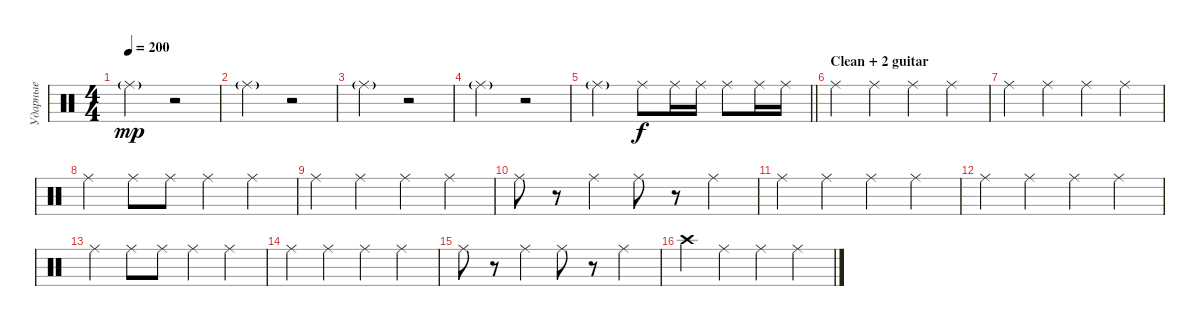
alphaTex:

\track ("Ударные" "Ударные") {instrument percussion}
\staff {score}
\articulation defaults
\ts (4 4)
\tempo 200
\clef neutral
\ks c "Ride (middle)"{g}.2{dy mp}
r.2 |
"Ride (middle)"{g}.2 r.2 |
"Ride (middle)"{g}.2 r.2 |
"Ride (middle)"{g}.2 r.2 |
\barLineRight lightlight "Ride (middle)"{g}.2 "Ride (middle)".8{dy f} "Ride (middle)".16 "Ride (middle)".16 "Ride (middle)".8 "Ride (middle)".16 "Ride (middle)".16
|
\section ("" "Clean + 2 guitar")
"Ride (middle)".4{volume 11} "Ride (middle)".4 "Ride (middle)".4 "Ride (middle)".4 |
"Ride (middle)".4 "Ride (middle)".4 "Ride (middle)".4 "Ride (middle)".4 |
"Ride (middle)".4 "Ride (middle)".8 "Ride (middle)".8 "Ride (middle)".4 "Ride (middle)".4 |
"Ride (middle)".4 "Ride (middle)".4 "Ride (middle)".4 "Ride (middle)".4 |
"Ride (middle)".8 r.8 "Ride (middle)".4 "Ride (middle)".8 r.8 "Ride (middle)".4 |
"Ride (middle)".4 "Ride (middle)".4 "Ride (middle)".4 "Ride (middle)".4 |
"Ride (middle)".4 "Ride (middle)".4 "Ride (middle)".4 "Ride (middle)".4 |
"Ride (middle)".4 "Ride (middle)".8 "Ride (middle)".8 "Ride (middle)".4 "Ride (middle)".4 |
"Ride (middle)".4 "Ride (middle)".4 "Ride (middle)".4 "Ride (middle)".4 |
"Ride (middle)".8 r.8 "Ride (middle)".4 "Ride (middle)".8 r.8 "Ride (middle)".4 |
"Crash high (hit)".4 "Ride (middle)".4 "Ride (middle)".4 "Ride (middle)".4
